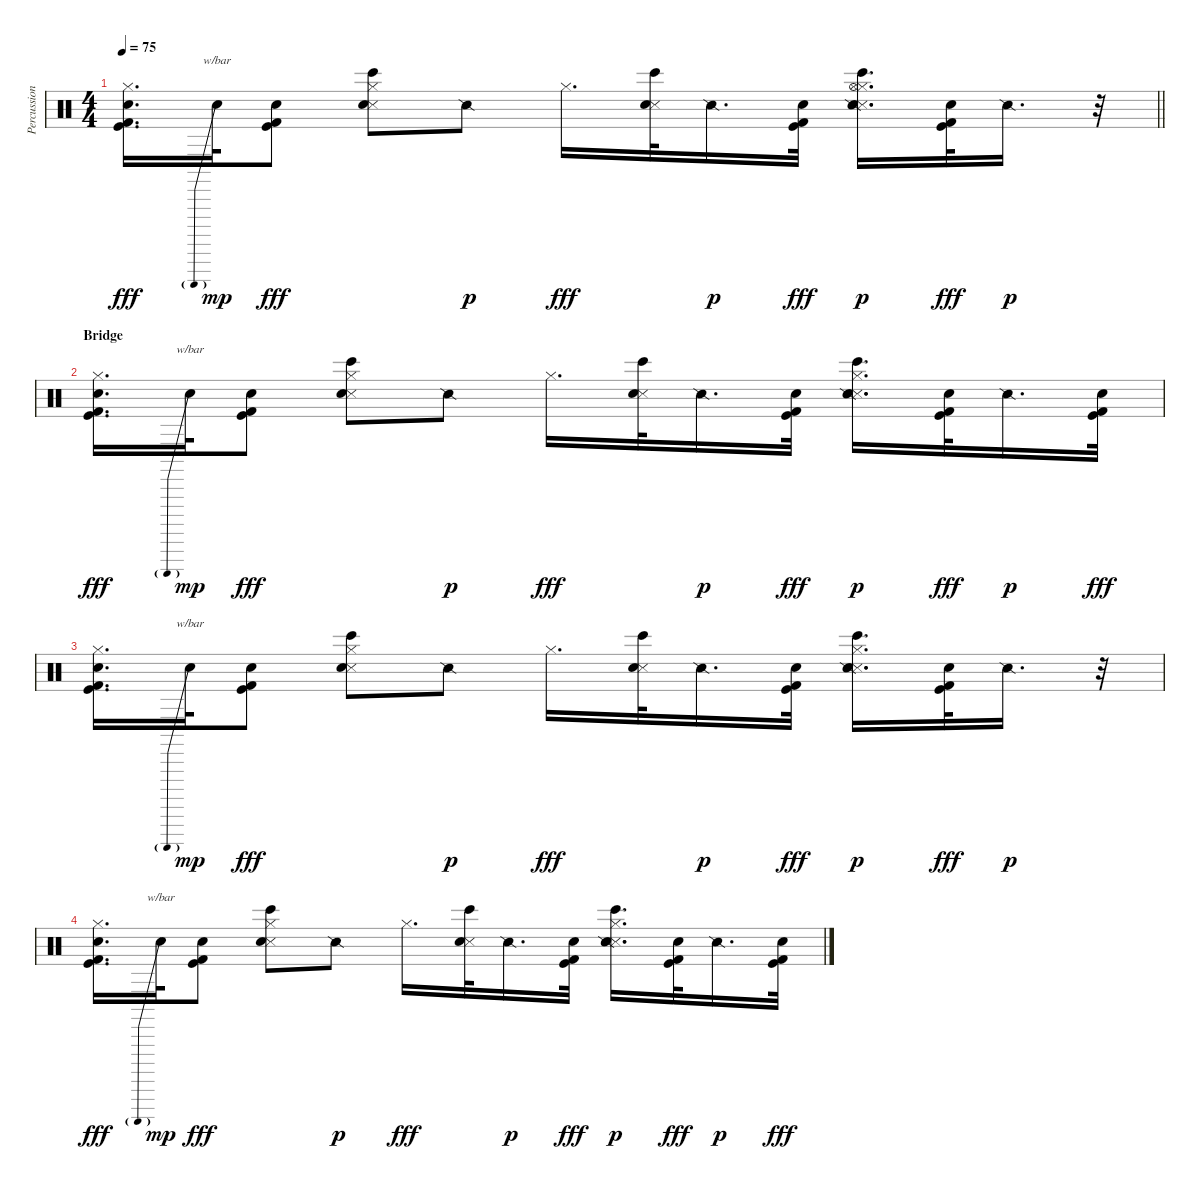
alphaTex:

\track ("Percussion" "Percussion") {instrument percussion}
\staff {score}
\articulation defaults
\ts (4 4)
\tempo 75
\clef neutral
\barLineRight lightlight
\ks c
("Hi-Hat (closed)" "Snare (hit) 2" "Kick (hit)" "Kick (hit) 2").16{d dy fff} "Hand Clap (hit)".32{tbe (predive default 0 24 60 24) dy mp} ("Snare (hit) 2" "Kick (hit)" "Kick (hit) 2").8{dy fff} ("Hi-Hat (closed)" "Snare (side stick) 3" "Snare (hit) 2" "Bongo High (hit)").8 "Snare (side stick) 2".8{dy p} "Hi-Hat (closed)".16{d dy fff} ("Snare (side stick) 3" "Snare (hit) 2" "Bongo High (hit)").32 "Snare (side stick) 2".16{d dy p} ("Snare (hit) 2" "Kick (hit)" "Kick (hit) 2").32{dy fff} ("Hi-Hat (closed)" "Snare (side stick) 3" "Snare (hit) 2" "Bongo High (hit)" "Snare (side stick) 2" "Hi-Hat (open)").16{d dy p} ("Snare (hit) 2" "Kick (hit)" "Kick (hit) 2").32{dy fff} "Snare (side stick) 2".16{d dy p} r.32 |
\section ("" "Bridge")
("Hi-Hat (closed)" "Snare (hit) 2" "Kick (hit)" "Kick (hit) 2").16{d dy fff} "Hand Clap (hit)".32{tbe (predive default 0 24 60 24) dy mp} ("Snare (hit) 2" "Kick (hit)" "Kick (hit) 2").8{dy fff} ("Hi-Hat (closed)" "Snare (side stick) 3" "Snare (hit) 2" "Bongo High (hit)").8 "Snare (side stick) 2".8{dy p} "Hi-Hat (closed)".16{d dy fff} ("Snare (side stick) 3" "Snare (hit) 2" "Bongo High (hit)").32 "Snare (side stick) 2".16{d dy p} ("Snare (hit) 2" "Kick (hit)" "Kick (hit) 2").32{dy fff} ("Hi-Hat (closed)" "Snare (side stick) 3" "Snare (hit) 2" "Bongo High (hit)" "Snare (side stick) 2").16{d dy p} ("Snare (hit) 2" "Kick (hit)" "Kick (hit) 2").32{dy fff} "Snare (side stick) 2".16{d dy p} ("Snare (hit) 2" "Kick (hit)" "Kick (hit) 2").32{dy fff} |
("Hi-Hat (closed)" "Snare (hit) 2" "Kick (hit)" "Kick (hit) 2").16{d} "Hand Clap (hit)".32{tbe (predive default 0 24 60 24) dy mp} ("Snare (hit) 2" "Kick (hit)" "Kick (hit) 2").8{dy fff} ("Hi-Hat (closed)" "Snare (side stick) 3" "Snare (hit) 2" "Bongo High (hit)").8 "Snare (side stick) 2".8{dy p} "Hi-Hat (closed)".16{d dy fff} ("Snare (side stick) 3" "Snare (hit) 2" "Bongo High (hit)").32 "Snare (side stick) 2".16{d dy p} ("Snare (hit) 2" "Kick (hit)" "Kick (hit) 2").32{dy fff} ("Hi-Hat (closed)" "Snare (side stick) 3" "Snare (hit) 2" "Bongo High (hit)" "Snare (side stick) 2").16{d dy p} ("Snare (hit) 2" "Kick (hit)" "Kick (hit) 2").32{dy fff} "Snare (side stick) 2".16{d dy p} r.32 |
("Hi-Hat (closed)" "Snare (hit) 2" "Kick (hit)" "Kick (hit) 2").16{d dy fff} "Hand Clap (hit)".32{tbe (predive default 0 24 60 24) dy mp} ("Snare (hit) 2" "Kick (hit)" "Kick (hit) 2").8{dy fff} ("Hi-Hat (closed)" "Snare (side stick) 3" "Snare (hit) 2" "Bongo High (hit)").8 "Snare (side stick) 2".8{dy p} "Hi-Hat (closed)".16{d dy fff} ("Snare (side stick) 3" "Snare (hit) 2" "Bongo High (hit)").32 "Snare (side stick) 2".16{d dy p} ("Snare (hit) 2" "Kick (hit)" "Kick (hit) 2").32{dy fff} ("Hi-Hat (closed)" "Snare (side stick) 3" "Snare (hit) 2" "Bongo High (hit)" "Snare (side stick) 2").16{d dy p} ("Snare (hit) 2" "Kick (hit)" "Kick (hit) 2").32{dy fff} "Snare (side stick) 2".16{d dy p} ("Snare (hit) 2" "Kick (hit)" "Kick (hit) 2").32{dy fff}
